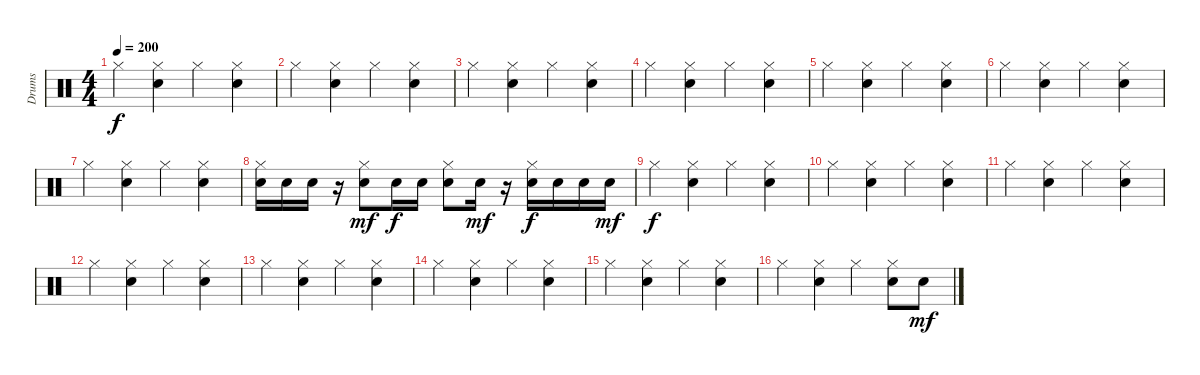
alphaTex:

\track ("Drums" "Drums") {instrument percussion}
\staff {score}
\articulation defaults
\ts (4 4)
\tempo 200
\clef neutral
\ks c "Hi-Hat (closed)".4{dy f}
("Snare (hit) 2" "Hi-Hat (closed)").4 "Hi-Hat (closed)".4 ("Snare (hit) 2" "Hi-Hat (closed)").4 |
"Hi-Hat (closed)".4 ("Snare (hit) 2" "Hi-Hat (closed)").4 "Hi-Hat (closed)".4 ("Snare (hit) 2" "Hi-Hat (closed)").4 |
"Hi-Hat (closed)".4 ("Snare (hit) 2" "Hi-Hat (closed)").4 "Hi-Hat (closed)".4 ("Snare (hit) 2" "Hi-Hat (closed)").4 |
"Hi-Hat (closed)".4 ("Snare (hit) 2" "Hi-Hat (closed)").4 "Hi-Hat (closed)".4 ("Snare (hit) 2" "Hi-Hat (closed)").4 |
"Hi-Hat (closed)".4 ("Snare (hit) 2" "Hi-Hat (closed)").4 "Hi-Hat (closed)".4 ("Snare (hit) 2" "Hi-Hat (closed)").4 |
"Hi-Hat (closed)".4 ("Snare (hit) 2" "Hi-Hat (closed)").4 "Hi-Hat (closed)".4 ("Snare (hit) 2" "Hi-Hat (closed)").4 |
"Hi-Hat (closed)".4 ("Snare (hit) 2" "Hi-Hat (closed)").4 "Hi-Hat (closed)".4 ("Snare (hit) 2" "Hi-Hat (closed)").4 |
("Snare (hit) 2" "Hi-Hat (closed)").16 "Snare (hit) 2".16 "Snare (hit) 2".16 r.16 ("Snare (hit) 2" "Hi-Hat (closed)").8{dy mf} "Snare (hit) 2".16{dy f} "Snare (hit) 2".16 ("Snare (hit) 2" "Hi-Hat (closed)").8 "Snare (hit) 2".16{dy mf} r.16 ("Snare (hit) 2" "Hi-Hat (closed)").16{dy f} "Snare (hit) 2".16 "Snare (hit) 2".16 "Snare (hit) 2".16{dy mf} |
"Hi-Hat (closed)".4{dy f} ("Snare (hit) 2" "Hi-Hat (closed)").4 "Hi-Hat (closed)".4 ("Snare (hit) 2" "Hi-Hat (closed)").4 |
"Hi-Hat (closed)".4 ("Snare (hit) 2" "Hi-Hat (closed)").4 "Hi-Hat (closed)".4 ("Snare (hit) 2" "Hi-Hat (closed)").4 |
"Hi-Hat (closed)".4 ("Snare (hit) 2" "Hi-Hat (closed)").4 "Hi-Hat (closed)".4 ("Snare (hit) 2" "Hi-Hat (closed)").4 |
"Hi-Hat (closed)".4 ("Snare (hit) 2" "Hi-Hat (closed)").4 "Hi-Hat (closed)".4 ("Snare (hit) 2" "Hi-Hat (closed)").4 |
"Hi-Hat (closed)".4 ("Snare (hit) 2" "Hi-Hat (closed)").4 "Hi-Hat (closed)".4 ("Snare (hit) 2" "Hi-Hat (closed)").4 |
"Hi-Hat (closed)".4 ("Snare (hit) 2" "Hi-Hat (closed)").4 "Hi-Hat (closed)".4 ("Snare (hit) 2" "Hi-Hat (closed)").4 |
"Hi-Hat (closed)".4 ("Snare (hit) 2" "Hi-Hat (closed)").4 "Hi-Hat (closed)".4 ("Snare (hit) 2" "Hi-Hat (closed)").4 |
"Hi-Hat (closed)".4 ("Snare (hit) 2" "Hi-Hat (closed)").4 "Hi-Hat (closed)".4 ("Electric Snare (hit)" "Hi-Hat (closed)").8 "Electric Snare (hit)".8{dy mf}
